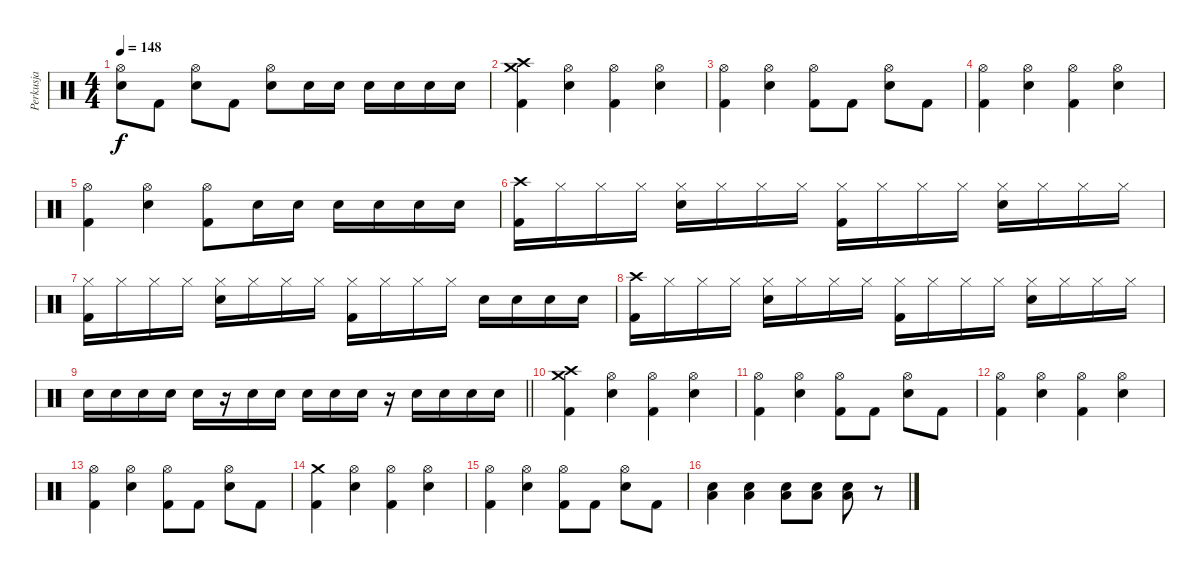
\track ("Perkusja" "Perkusja") {instrument percussion}
\staff {score}
\articulation defaults
\ts (4 4)
\tempo 148
\clef neutral
\ks c
("Hi-Hat (open)" "Snare (hit) 2").8{dy f} "Kick (hit) 2".8 ("Hi-Hat (open)" "Snare (hit) 2").8 "Kick (hit) 2".8 ("Hi-Hat (open)" "Snare (hit) 2").8 "Snare (hit) 2".16 "Snare (hit) 2".16 "Snare (hit) 2".16 "Snare (hit) 2".16 "Snare (hit) 2".16 "Snare (hit) 2".16 |
("Crash high (hit)" "Crash medium (hit)" "Kick (hit) 2").4 ("Hi-Hat (open)" "Snare (hit) 2").4 ("Hi-Hat (open)" "Kick (hit) 2").4 ("Hi-Hat (open)" "Snare (hit) 2").4 |
("Hi-Hat (open)" "Kick (hit) 2").4 ("Hi-Hat (open)" "Snare (hit) 2").4 ("Hi-Hat (open)" "Kick (hit) 2").8 "Kick (hit) 2".8 ("Hi-Hat (open)" "Snare (hit) 2").8 "Kick (hit) 2".8 |
("Hi-Hat (open)" "Kick (hit) 2").4 ("Hi-Hat (open)" "Snare (hit) 2").4 ("Hi-Hat (open)" "Kick (hit) 2").4 ("Hi-Hat (open)" "Snare (hit) 2").4 |
("Hi-Hat (open)" "Kick (hit) 2").4 ("Hi-Hat (open)" "Snare (hit) 2").4 ("Hi-Hat (open)" "Kick (hit) 2").8 "Snare (hit) 2".16 "Snare (hit) 2".16 "Snare (hit) 2".16 "Snare (hit) 2".16 "Snare (hit) 2".16 "Snare (hit) 2".16 |
("Crash high (hit)" "Kick (hit) 2").16 "Hi-Hat (closed)".16 "Hi-Hat (closed)".16 "Hi-Hat (closed)".16 ("Hi-Hat (closed)" "Snare (hit) 2").16 "Hi-Hat (closed)".16 "Hi-Hat (closed)".16 "Hi-Hat (closed)".16 ("Hi-Hat (closed)" "Kick (hit) 2").16 "Hi-Hat (closed)".16 "Hi-Hat (closed)".16 "Hi-Hat (closed)".16 ("Hi-Hat (closed)" "Snare (hit) 2").16 "Hi-Hat (closed)".16 "Hi-Hat (closed)".16 "Hi-Hat (closed)".16 |
("Hi-Hat (closed)" "Kick (hit) 2").16 "Hi-Hat (closed)".16 "Hi-Hat (closed)".16 "Hi-Hat (closed)".16 ("Hi-Hat (closed)" "Snare (hit) 2").16 "Hi-Hat (closed)".16 "Hi-Hat (closed)".16 "Hi-Hat (closed)".16 ("Hi-Hat (closed)" "Kick (hit) 2").16 "Hi-Hat (closed)".16 "Hi-Hat (closed)".16 "Hi-Hat (closed)".16 "Snare (hit) 2".16 "Snare (hit) 2".16 "Snare (hit) 2".16 "Snare (hit) 2".16 |
("Crash high (hit)" "Kick (hit) 2").16 "Hi-Hat (closed)".16 "Hi-Hat (closed)".16 "Hi-Hat (closed)".16 ("Hi-Hat (closed)" "Snare (hit) 2").16 "Hi-Hat (closed)".16 "Hi-Hat (closed)".16 "Hi-Hat (closed)".16 ("Hi-Hat (closed)" "Kick (hit) 2").16 "Hi-Hat (closed)".16 "Hi-Hat (closed)".16 "Hi-Hat (closed)".16 ("Hi-Hat (closed)" "Snare (hit) 2").16 "Hi-Hat (closed)".16 "Hi-Hat (closed)".16 "Hi-Hat (closed)".16 |
\barLineRight lightlight "Snare (hit) 2".16 "Snare (hit) 2".16 "Snare (hit) 2".16 "Snare (hit) 2".16 "Snare (hit) 2".16
r.16 "Snare (hit) 2".16 "Snare (hit) 2".16 "Snare (hit) 2".16 "Snare (hit) 2".16 "Snare (hit) 2".16 r.16 "Snare (hit) 2".16 "Snare (hit) 2".16 "Snare (hit) 2".16 "Snare (hit) 2".16 |
("Crash high (hit)" "Crash medium (hit)" "Kick (hit) 2").4 ("Hi-Hat (open)" "Snare (hit) 2").4 ("Hi-Hat (open)" "Kick (hit) 2").4 ("Hi-Hat (open)" "Snare (hit) 2").4 |
("Hi-Hat (open)" "Kick (hit) 2").4 ("Hi-Hat (open)" "Snare (hit) 2").4 ("Hi-Hat (open)" "Kick (hit) 2").8 "Kick (hit) 2".8 ("Hi-Hat (open)" "Snare (hit) 2").8 "Kick (hit) 2".8 |
("Hi-Hat (open)" "Kick (hit) 2").4 ("Hi-Hat (open)" "Snare (hit) 2").4 ("Hi-Hat (open)" "Kick (hit) 2").4 ("Hi-Hat (open)" "Snare (hit) 2").4 |
("Hi-Hat (open)" "Kick (hit) 2").4 ("Hi-Hat (open)" "Snare (hit) 2").4 ("Hi-Hat (open)" "Kick (hit) 2").8 "Kick (hit) 2".8 ("Hi-Hat (open)" "Snare (hit) 2").8 "Kick (hit) 2".8 |
("Crash medium (hit)" "Kick (hit) 2").4 ("Hi-Hat (open)" "Snare (hit) 2").4 ("Hi-Hat (open)" "Kick (hit) 2").4 ("Hi-Hat (open)" "Snare (hit) 2").4 |
("Hi-Hat (open)" "Kick (hit) 2").4 ("Hi-Hat (open)" "Snare (hit) 2").4 ("Hi-Hat (open)" "Kick (hit) 2").8 "Kick (hit) 2".8 ("Hi-Hat (open)" "Snare (hit) 2").8 "Kick (hit) 2".8 |
("Snare (hit) 2" "Low Floor Tom (hit)").4 ("Snare (hit) 2" "Low Floor Tom (hit)").4 ("Snare (hit) 2" "Low Floor Tom (hit)").8 ("Snare (hit) 2" "Low Floor Tom (hit)").8 ("Snare (hit) 2" "Low Floor Tom (hit)").8 r.8
